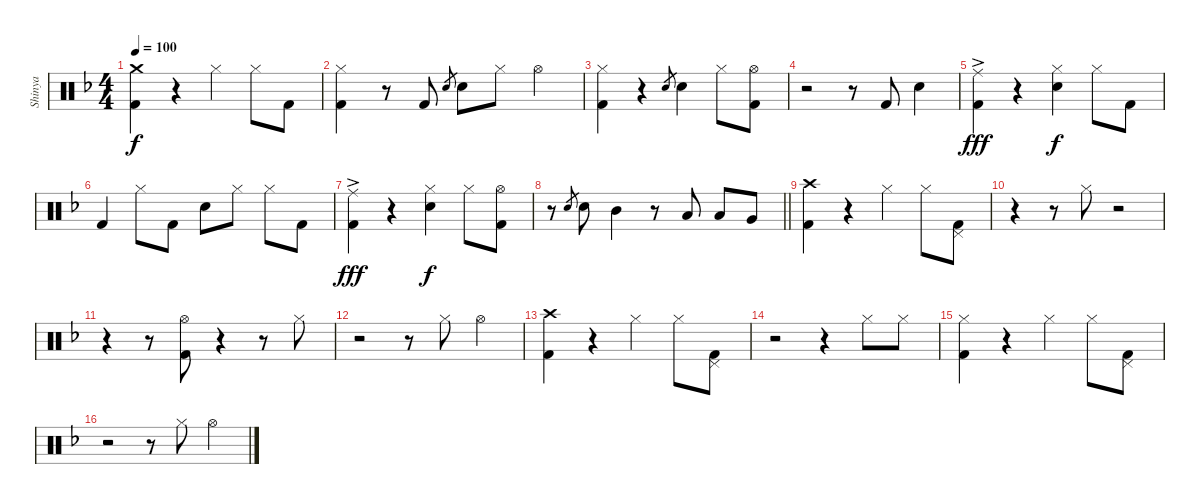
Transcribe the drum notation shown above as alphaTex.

\track ("Shinya" "Shinya") {instrument percussion}
\staff {score}
\articulation defaults
\ts (4 4)
\tempo 100
\clef neutral
\ks f
("Crash medium (hit)" "Kick (hit) 2").4{dy f} r.4 "Hi-Hat (closed)".4 "Hi-Hat (closed)".8 "Kick (hit) 2".8 |
("Hi-Hat (closed)" "Kick (hit) 2").4 r.8 "Kick (hit) 2".8 "Electric Snare (hit)".8{gr} "Electric Snare (hit)".8 "Hi-Hat (closed)".8 "Hi-Hat (open)".4 |
("Hi-Hat (closed)" "Kick (hit) 2").4 r.4 "Electric Snare (hit)".8{gr} "Electric Snare (hit)".4 "Hi-Hat (closed)".8 ("Hi-Hat (open)" "Kick (hit) 2").8 |
r.2 r.8 "Kick (hit) 2".8 "Electric Snare (hit)".4 |
("Ride (middle)"{ac} "Kick (hit) 2").4{dy fff} r.4 ("Hi-Hat (closed)" "Electric Snare (hit)").4{dy f} "Hi-Hat (closed)".8 "Kick (hit) 2".8 |
"Kick (hit) 2".4 "Hi-Hat (closed)".8 "Kick (hit) 2".8 "Electric Snare (hit)".8 "Hi-Hat (closed)".8 "Hi-Hat (closed)".8 "Kick (hit) 2".8 |
("Ride (middle)"{ac} "Kick (hit) 2").4{dy fff} r.4 ("Hi-Hat (closed)" "Electric Snare (hit)").4{dy f} "Hi-Hat (closed)".8 ("Hi-Hat (open)" "Kick (hit) 2").8 |
\barLineRight lightlight
r.8 "Electric Snare (hit)".8{gr} "Electric Snare (hit)".8 "Mid Tom (hit)".4 r.8 "Low Tom (hit)".8 "Low Tom (hit)".8 "Very Low Tom (hit)".8 |
("Crash high (hit)" "Kick (hit) 2").4 r.4 "Hi-Hat (closed)".4 "Hi-Hat (closed)".8 ("Pedal Hi-Hat (hit)" "Kick (hit) 2").8 |
r.4 r.8 "Hi-Hat (closed)".8 r.2 |
r.4 r.8 ("Hi-Hat (open)" "Kick (hit) 2").8 r.4 r.8 "Hi-Hat (closed)".8 |
r.2 r.8 "Hi-Hat (closed)".8 "Hi-Hat (open)".4 |
("Crash high (hit)" "Kick (hit) 2").4 r.4 "Hi-Hat (closed)".4 "Hi-Hat (closed)".8 ("Pedal Hi-Hat (hit)" "Kick (hit) 2").8 |
r.2 r.4 "Hi-Hat (closed)".8 "Hi-Hat (closed)".8 |
("Hi-Hat (closed)" "Kick (hit) 2").4 r.4 "Hi-Hat (closed)".4 "Hi-Hat (closed)".8 ("Pedal Hi-Hat (hit)" "Kick (hit) 2").8 |
r.2 r.8 "Hi-Hat (closed)".8 "Hi-Hat (open)".4
